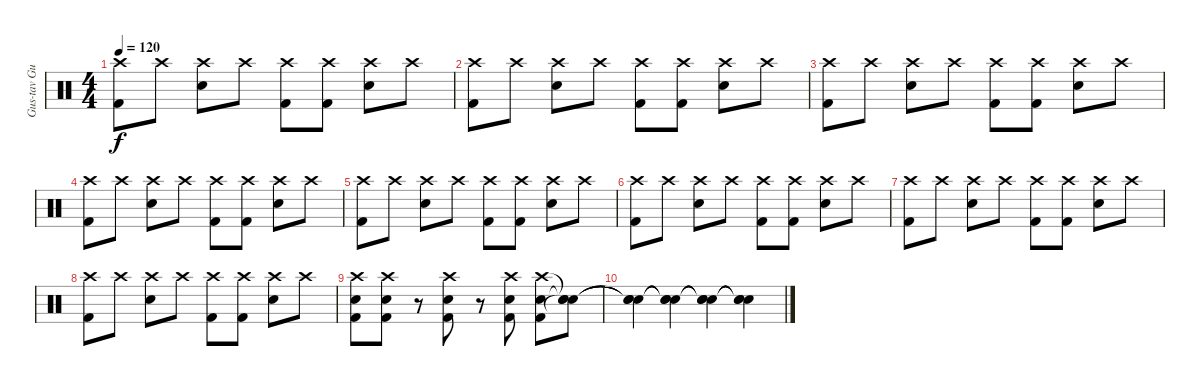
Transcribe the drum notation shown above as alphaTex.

\track ("Gus-tav Gus-Gus-tav" "Gus-tav Gu") {instrument percussion}
\staff {score}
\articulation defaults
\ts (4 4)
\tempo 120
\clef neutral
\ks c
("Crash high (hit)" "Kick (hit) 2").8{dy f} "Crash high (hit)".8 ("Snare (hit) 2" "Crash high (hit)").8 "Crash high (hit)".8 ("Kick (hit) 2" "Crash high (hit)").8 ("Crash high (hit)" "Kick (hit) 2").8 ("Snare (hit) 2" "Crash high (hit)").8 "Crash high (hit)".8 |
("Crash high (hit)" "Kick (hit) 2").8 "Crash high (hit)".8 ("Snare (hit) 2" "Crash high (hit)").8 "Crash high (hit)".8 ("Kick (hit) 2" "Crash high (hit)").8 ("Crash high (hit)" "Kick (hit) 2").8 ("Snare (hit) 2" "Crash high (hit)").8 "Crash high (hit)".8 |
("Crash high (hit)" "Kick (hit) 2").8 "Crash high (hit)".8 ("Snare (hit) 2" "Crash high (hit)").8 "Crash high (hit)".8 ("Kick (hit) 2" "Crash high (hit)").8 ("Crash high (hit)" "Kick (hit) 2").8 ("Snare (hit) 2" "Crash high (hit)").8 "Crash high (hit)".8 |
("Crash high (hit)" "Kick (hit) 2").8 "Crash high (hit)".8 ("Snare (hit) 2" "Crash high (hit)").8 "Crash high (hit)".8 ("Kick (hit) 2" "Crash high (hit)").8 ("Crash high (hit)" "Kick (hit) 2").8 ("Snare (hit) 2" "Crash high (hit)").8 "Crash high (hit)".8 |
("Crash high (hit)" "Kick (hit) 2").8 "Crash high (hit)".8 ("Snare (hit) 2" "Crash high (hit)").8 "Crash high (hit)".8 ("Kick (hit) 2" "Crash high (hit)").8 ("Crash high (hit)" "Kick (hit) 2").8 ("Snare (hit) 2" "Crash high (hit)").8 "Crash high (hit)".8 |
("Crash high (hit)" "Kick (hit) 2").8 "Crash high (hit)".8 ("Snare (hit) 2" "Crash high (hit)").8 "Crash high (hit)".8 ("Kick (hit) 2" "Crash high (hit)").8 ("Crash high (hit)" "Kick (hit) 2").8 ("Snare (hit) 2" "Crash high (hit)").8 "Crash high (hit)".8 |
("Crash high (hit)" "Kick (hit) 2").8 "Crash high (hit)".8 ("Snare (hit) 2" "Crash high (hit)").8 "Crash high (hit)".8 ("Kick (hit) 2" "Crash high (hit)").8 ("Crash high (hit)" "Kick (hit) 2").8 ("Snare (hit) 2" "Crash high (hit)").8 "Crash high (hit)".8 |
("Crash high (hit)" "Kick (hit) 2").8 "Crash high (hit)".8 ("Snare (hit) 2" "Crash high (hit)").8 "Crash high (hit)".8 ("Kick (hit) 2" "Crash high (hit)").8 ("Crash high (hit)" "Kick (hit) 2").8 ("Snare (hit) 2" "Crash high (hit)").8 "Crash high (hit)".8 |
("Kick (hit) 2" "Snare (hit) 2" "Crash high (hit)").8 ("Kick (hit) 2" "Snare (hit) 2" "Crash high (hit)").8 r.8 ("Kick (hit) 2" "Snare (hit) 2" "Crash high (hit)").8 r.8 ("Kick (hit) 2" "Snare (hit) 2" "Crash high (hit)").8 ("Kick (hit) 2" "Snare (hit) 2" "Crash high (hit)").8 ("Snare (hit)"{t} "Snare (hit)"{t} "Snare (hit)"{t}).8 |
("Snare (hit)"{t} "Snare (hit)"{t} "Snare (hit)"{t}).4 ("Snare (hit)"{t} "Snare (hit)"{t} "Snare (hit)"{t}).4 ("Snare (hit)"{t} "Snare (hit)"{t} "Snare (hit)"{t}).4 ("Snare (hit)"{t} "Snare (hit)"{t} "Snare (hit)"{t}).4
